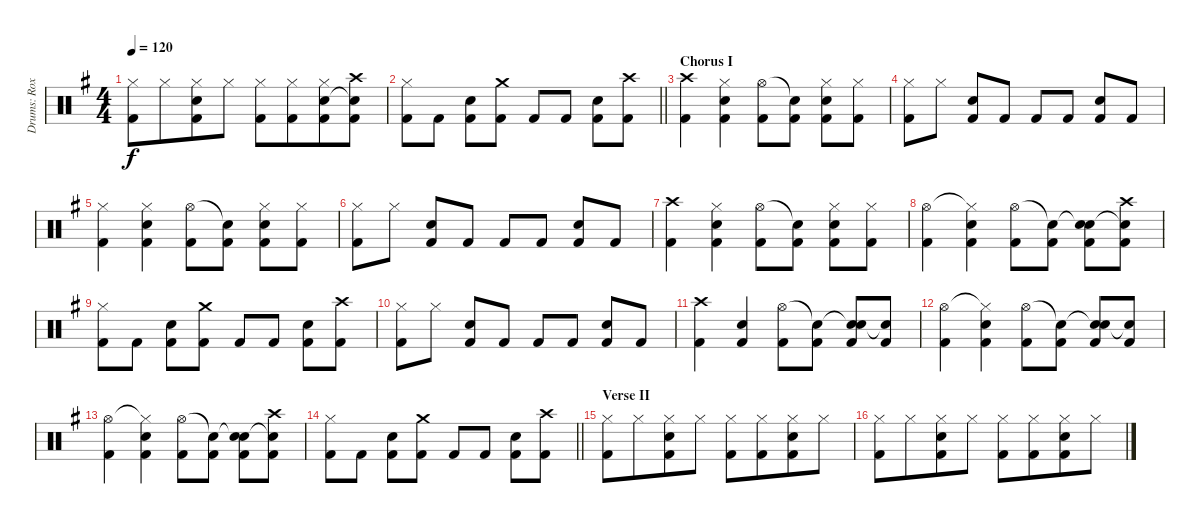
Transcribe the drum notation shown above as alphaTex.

\track ("Drums: Roxy" "Drums: Rox") {instrument percussion}
\staff {score}
\articulation defaults
\ts (4 4)
\tempo 120
\clef neutral
\ks g
("Hi-Hat (closed)" "Kick (hit) 2").8{dy f} "Hi-Hat (closed)".8{beam merge} ("Hi-Hat (closed)" "Snare (hit) 2" "Kick (hit) 2").8 "Hi-Hat (closed)".8 ("Hi-Hat (closed)" "Kick (hit) 2").8 ("Hi-Hat (closed)" "Kick (hit) 2").8{beam merge} ("Hi-Hat (closed)" "Snare (hit) 2" "Kick (hit) 2").8 ("Crash high (hit)" "Snare (hit)"{t} "Kick (hit) 2").8 |
\barLineRight lightlight
("Hi-Hat (closed)" "Kick (hit) 2").8 "Kick (hit) 2".8 ("Snare (hit) 2" "Kick (hit) 2").8 ("Crash medium (hit)" "Kick (hit) 2").8 "Kick (hit) 2".8 "Kick (hit) 2".8 ("Snare (hit) 2" "Kick (hit) 2").8 ("Crash high (hit)" "Kick (hit) 2").8 |
\section ("" "Chorus I")
("Crash high (hit)" "Kick (hit) 2").4 ("Hi-Hat (closed)" "Snare (hit) 2" "Kick (hit) 2").4 ("Hi-Hat (open)" "Kick (hit) 2").8 ("Snare (hit)"{t} "Kick (hit) 2").8 ("Hi-Hat (closed)" "Snare (hit) 2" "Kick (hit) 2").8 ("Hi-Hat (closed)" "Kick (hit) 2").8 |
("Hi-Hat (closed)" "Kick (hit) 2").8 "Hi-Hat (closed)".8 ("Snare (hit) 2" "Kick (hit) 2").8 "Kick (hit) 2".8 "Kick (hit) 2".8 "Kick (hit) 2".8 ("Snare (hit) 2" "Kick (hit) 2").8 "Kick (hit) 2".8 |
("Hi-Hat (closed)" "Kick (hit) 2").4 ("Hi-Hat (closed)" "Snare (hit) 2" "Kick (hit) 2").4 ("Hi-Hat (open)" "Kick (hit) 2").8 ("Snare (hit)"{t} "Kick (hit) 2").8 ("Hi-Hat (closed)" "Snare (hit) 2" "Kick (hit) 2").8 ("Hi-Hat (closed)" "Kick (hit) 2").8 |
("Hi-Hat (closed)" "Kick (hit) 2").8 "Hi-Hat (closed)".8 ("Snare (hit) 2" "Kick (hit) 2").8 "Kick (hit) 2".8 "Kick (hit) 2".8 "Kick (hit) 2".8 ("Snare (hit) 2" "Kick (hit) 2").8 "Kick (hit) 2".8 |
("Crash high (hit)" "Kick (hit) 2").4 ("Hi-Hat (closed)" "Snare (hit) 2" "Kick (hit) 2").4 ("Hi-Hat (open)" "Kick (hit) 2").8 ("Snare (hit)"{t} "Kick (hit) 2").8 ("Hi-Hat (closed)" "Snare (hit) 2" "Kick (hit) 2").8 ("Hi-Hat (closed)" "Kick (hit) 2").8 |
("Hi-Hat (open)" "Kick (hit) 2").4 ("Hi-Hat (closed)"{t} "Snare (hit) 2" "Kick (hit) 2").4 ("Hi-Hat (open)" "Kick (hit) 2").8 ("Snare (hit)"{t} "Kick (hit) 2").8 ("Snare (hit)"{t} "Snare (hit) 2" "Kick (hit) 2").8 ("Crash high (hit)" "Snare (hit)"{t} "Kick (hit) 2").8 |
("Hi-Hat (closed)" "Kick (hit) 2").8 "Kick (hit) 2".8 ("Snare (hit) 2" "Kick (hit) 2").8 ("Crash medium (hit)" "Kick (hit) 2").8 "Kick (hit) 2".8 "Kick (hit) 2".8 ("Snare (hit) 2" "Kick (hit) 2").8 ("Crash high (hit)" "Kick (hit) 2").8 |
("Hi-Hat (closed)" "Kick (hit) 2").8 "Hi-Hat (closed)".8 ("Snare (hit) 2" "Kick (hit) 2").8 "Kick (hit) 2".8 "Kick (hit) 2".8 "Kick (hit) 2".8 ("Snare (hit) 2" "Kick (hit) 2").8 "Kick (hit) 2".8 |
("Crash high (hit)" "Kick (hit) 2").4 ("Snare (hit) 2" "Kick (hit) 2").4 ("Hi-Hat (open)" "Kick (hit) 2").8 ("Snare (hit)"{t} "Kick (hit) 2").8 ("Snare (hit)"{t} "Snare (hit) 2" "Kick (hit) 2").8 ("Snare (hit)"{t} "Kick (hit) 2").8 |
("Hi-Hat (open)" "Kick (hit) 2").4 ("Hi-Hat (closed)"{t} "Snare (hit) 2" "Kick (hit) 2").4 ("Hi-Hat (open)" "Kick (hit) 2").8 ("Snare (hit)"{t} "Kick (hit) 2").8 ("Snare (hit)"{t} "Snare (hit) 2" "Kick (hit) 2").8 ("Snare (hit)"{t} "Kick (hit) 2").8 |
("Hi-Hat (open)" "Kick (hit) 2").4 ("Hi-Hat (closed)"{t} "Snare (hit) 2" "Kick (hit) 2").4 ("Hi-Hat (open)" "Kick (hit) 2").8 ("Snare (hit)"{t} "Kick (hit) 2").8 ("Snare (hit)"{t} "Snare (hit) 2" "Kick (hit) 2").8 ("Crash high (hit)" "Snare (hit)"{t} "Kick (hit) 2").8 |
\barLineRight lightlight
("Hi-Hat (closed)" "Kick (hit) 2").8 "Kick (hit) 2".8 ("Snare (hit) 2" "Kick (hit) 2").8 ("Crash medium (hit)" "Kick (hit) 2").8 "Kick (hit) 2".8 "Kick (hit) 2".8 ("Snare (hit) 2" "Kick (hit) 2").8 ("Crash high (hit)" "Kick (hit) 2").8 |
\section ("" "Verse II")
("Hi-Hat (closed)" "Kick (hit) 2").8 "Hi-Hat (closed)".8{beam merge} ("Hi-Hat (closed)" "Snare (hit) 2" "Kick (hit) 2").8 "Hi-Hat (closed)".8 ("Hi-Hat (closed)" "Kick (hit) 2").8 ("Hi-Hat (closed)" "Kick (hit) 2").8{beam merge} ("Hi-Hat (closed)" "Snare (hit) 2" "Kick (hit) 2").8 "Hi-Hat (closed)".8 |
("Hi-Hat (closed)" "Kick (hit) 2").8 "Hi-Hat (closed)".8{beam merge} ("Hi-Hat (closed)" "Snare (hit) 2" "Kick (hit) 2").8 "Hi-Hat (closed)".8 ("Hi-Hat (closed)" "Kick (hit) 2").8 ("Hi-Hat (closed)" "Kick (hit) 2").8{beam merge} ("Hi-Hat (closed)" "Snare (hit) 2" "Kick (hit) 2").8 "Hi-Hat (closed)".8
